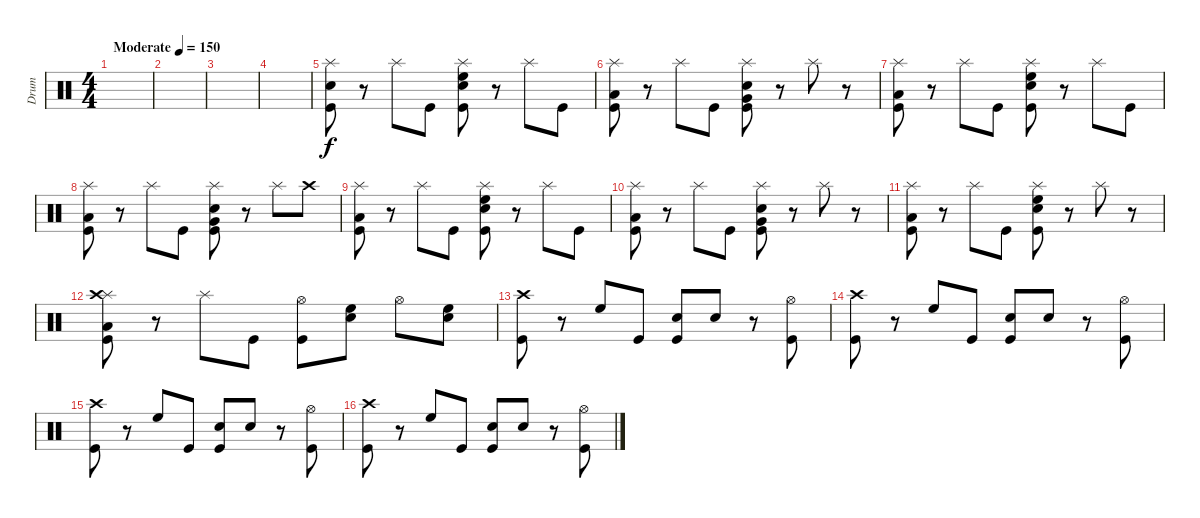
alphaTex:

\track ("Drum" "Drum") {instrument percussion}
\staff {score}
\articulation defaults
\ts (4 4)
\tempo (150 "Moderate")
\clef neutral
\ks c
|
|
|
|
("Splash (hit)" "Snare (hit) 2" "Kick (hit)").8 r.8 "Splash (hit)".8 "Kick (hit)".8 ("Splash (hit)" "Snare (hit) 2" "High Floor Tom (hit)" "Kick (hit)").8 r.8 "Splash (hit)".8 "Kick (hit)".8 |
("Splash (hit)" "Low Floor Tom (hit)" "Kick (hit)").8 r.8 "Splash (hit)".8 "Kick (hit)".8 ("Splash (hit)" "Snare (hit) 2" "Very Low Tom (hit)" "Kick (hit)").8 r.8 "Splash (hit)".8 r.8 |
("Splash (hit)" "Low Tom (hit)" "Kick (hit)").8 r.8 "Splash (hit)".8 "Kick (hit)".8 ("Splash (hit)" "Snare (hit) 2" "High Floor Tom (hit)" "Kick (hit)").8 r.8 "Splash (hit)".8 "Kick (hit)".8 |
("Splash (hit)" "Low Floor Tom (hit)" "Kick (hit)").8 r.8 "Splash (hit)".8 "Kick (hit)".8 ("Splash (hit)" "Snare (hit) 2" "Very Low Tom (hit)" "Kick (hit)").8 r.8 "Splash (hit)".8 "Crash high (hit)".8 |
("Splash (hit)" "Low Tom (hit)" "Kick (hit)").8 r.8 "Splash (hit)".8 "Kick (hit)".8 ("Splash (hit)" "Snare (hit) 2" "High Floor Tom (hit)" "Kick (hit)").8 r.8 "Splash (hit)".8 "Kick (hit)".8 |
("Splash (hit)" "Low Floor Tom (hit)" "Kick (hit)").8 r.8 "Splash (hit)".8 "Kick (hit)".8 ("Splash (hit)" "Snare (hit) 2" "Very Low Tom (hit)" "Kick (hit)").8 r.8 "Splash (hit)".8 r.8 |
("Splash (hit)" "Low Tom (hit)" "Kick (hit)").8 r.8 "Splash (hit)".8 "Kick (hit)".8 ("Splash (hit)" "Snare (hit) 2" "High Floor Tom (hit)" "Kick (hit)").8 r.8 "Splash (hit)".8 r.8 |
("Splash (hit)" "Crash high (hit)" "Low Floor Tom (hit)" "Kick (hit)").8 r.8 "Splash (hit)".8 "Kick (hit)".8 ("Hi-Hat (open)" "Kick (hit)").8 ("Snare (hit) 2" "High Floor Tom (hit)").8 "Hi-Hat (open)".8 ("Snare (hit) 2" "High Floor Tom (hit)").8 |
("Crash high (hit)" "Kick (hit)").8 r.8 "High Floor Tom (hit)".8 "Kick (hit)".8 ("Snare (hit) 2" "Kick (hit)").8 "Snare (hit) 2".8 r.8 ("Hi-Hat (open)" "Kick (hit)").8 |
("Crash high (hit)" "Kick (hit)").8 r.8 "High Floor Tom (hit)".8 "Kick (hit)".8 ("Snare (hit) 2" "Kick (hit)").8 "Snare (hit) 2".8 r.8 ("Hi-Hat (open)" "Kick (hit)").8 |
("Crash high (hit)" "Kick (hit)").8 r.8 "High Floor Tom (hit)".8 "Kick (hit)".8 ("Snare (hit) 2" "Kick (hit)").8 "Snare (hit) 2".8 r.8 ("Hi-Hat (open)" "Kick (hit)").8 |
("Crash high (hit)" "Kick (hit)").8 r.8 "High Floor Tom (hit)".8 "Kick (hit)".8 ("Snare (hit) 2" "Kick (hit)").8 "Snare (hit) 2".8 r.8 ("Hi-Hat (open)" "Kick (hit)").8
